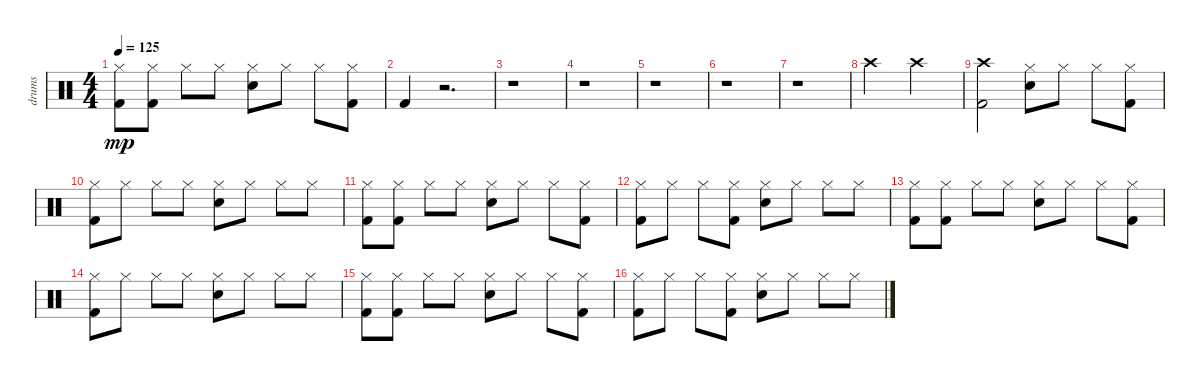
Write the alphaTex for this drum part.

\track ("drums" "drums") {instrument percussion}
\staff {score}
\articulation defaults
\ts (4 4)
\tempo 125
\clef neutral
\ks c
("Hi-Hat (closed)" "Kick (hit) 2").8{dy mp} ("Hi-Hat (closed)" "Kick (hit) 2").8 "Hi-Hat (closed)".8 "Hi-Hat (closed)".8 ("Hi-Hat (closed)" "Snare (hit) 2").8 "Hi-Hat (closed)".8 "Hi-Hat (closed)".8 ("Hi-Hat (closed)" "Kick (hit) 2").8 |
"Kick (hit) 2".4 r.2{d} |
r.1 |
r.1 |
r.1 |
r.1 |
r.1 |
"Crash high (hit)".2 "Crash high (hit)".2 |
("Crash high (hit)" "Kick (hit) 2").2 ("Hi-Hat (closed)" "Snare (hit) 2").8 "Hi-Hat (closed)".8 "Hi-Hat (closed)".8 ("Hi-Hat (closed)" "Kick (hit) 2").8 |
("Hi-Hat (closed)" "Kick (hit) 2").8 "Hi-Hat (closed)".8 "Hi-Hat (closed)".8 "Hi-Hat (closed)".8 ("Hi-Hat (closed)" "Snare (hit) 2").8 "Hi-Hat (closed)".8 "Hi-Hat (closed)".8 "Hi-Hat (closed)".8 |
("Hi-Hat (closed)" "Kick (hit) 2").8 ("Hi-Hat (closed)" "Kick (hit) 2").8 "Hi-Hat (closed)".8 "Hi-Hat (closed)".8 ("Hi-Hat (closed)" "Snare (hit) 2").8 "Hi-Hat (closed)".8 "Hi-Hat (closed)".8 ("Hi-Hat (closed)" "Kick (hit) 2").8 |
("Hi-Hat (closed)" "Kick (hit) 2").8 "Hi-Hat (closed)".8 "Hi-Hat (closed)".8 ("Hi-Hat (closed)" "Kick (hit) 2").8 ("Hi-Hat (closed)" "Snare (hit) 2").8 "Hi-Hat (closed)".8 "Hi-Hat (closed)".8 "Hi-Hat (closed)".8 |
("Hi-Hat (closed)" "Kick (hit) 2").8 ("Hi-Hat (closed)" "Kick (hit) 2").8 "Hi-Hat (closed)".8 "Hi-Hat (closed)".8 ("Hi-Hat (closed)" "Snare (hit) 2").8 "Hi-Hat (closed)".8 "Hi-Hat (closed)".8 ("Hi-Hat (closed)" "Kick (hit) 2").8 |
("Hi-Hat (closed)" "Kick (hit) 2").8 "Hi-Hat (closed)".8 "Hi-Hat (closed)".8 "Hi-Hat (closed)".8 ("Hi-Hat (closed)" "Snare (hit) 2").8 "Hi-Hat (closed)".8 "Hi-Hat (closed)".8 "Hi-Hat (closed)".8 |
("Hi-Hat (closed)" "Kick (hit) 2").8 ("Hi-Hat (closed)" "Kick (hit) 2").8 "Hi-Hat (closed)".8 "Hi-Hat (closed)".8 ("Hi-Hat (closed)" "Snare (hit) 2").8 "Hi-Hat (closed)".8 "Hi-Hat (closed)".8 ("Hi-Hat (closed)" "Kick (hit) 2").8 |
("Hi-Hat (closed)" "Kick (hit) 2").8 "Hi-Hat (closed)".8 "Hi-Hat (closed)".8 ("Hi-Hat (closed)" "Kick (hit) 2").8 ("Hi-Hat (closed)" "Snare (hit) 2").8 "Hi-Hat (closed)".8 "Hi-Hat (closed)".8 "Hi-Hat (closed)".8
